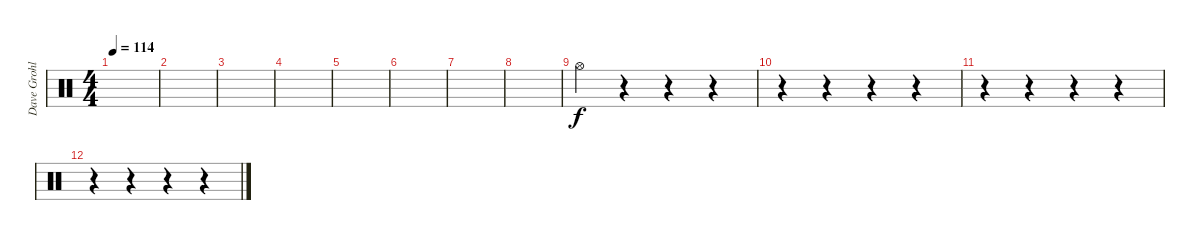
\track ("Dave Grohl" "Dave Grohl") {instrument percussion}
\staff {score}
\articulation defaults
\ts (4 4)
\tempo 114
\clef neutral
\ks c
|
|
|
|
|
|
|
|
"Hi-Hat (open)".4 r.4 r.4 r.4 |
r.4 r.4 r.4 r.4 |
r.4 r.4 r.4 r.4 |
r.4 r.4 r.4 r.4
